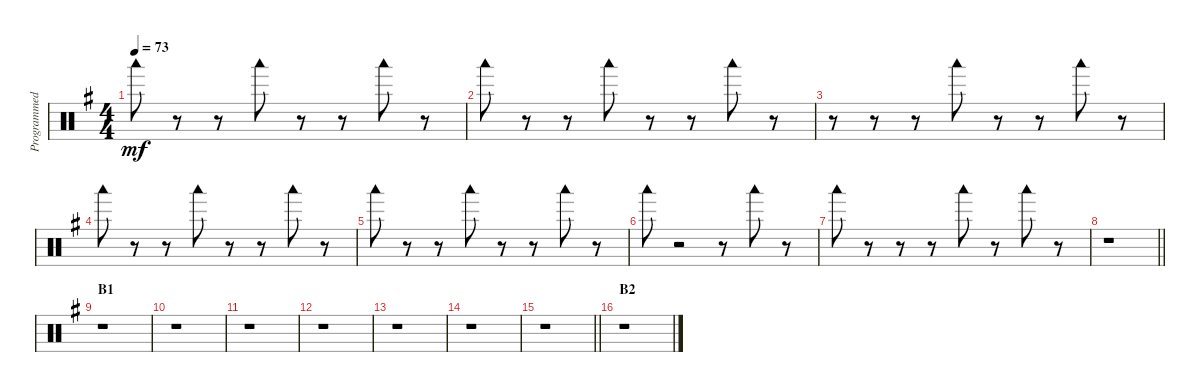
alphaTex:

\track ("Programmed Drums" "Programmed") {instrument percussion}
\staff {score}
\articulation defaults
\ts (4 4)
\tempo 73
\clef neutral
\ks g "Woodblock low (hit)".8{dy mf}
r.8 r.8 "Woodblock low (hit)".8 r.8 r.8 "Woodblock low (hit)".8 r.8 |
"Woodblock low (hit)".8 r.8 r.8 "Woodblock low (hit)".8 r.8 r.8 "Woodblock low (hit)".8 r.8 |
r.8 r.8 r.8 "Woodblock low (hit)".8 r.8 r.8 "Woodblock low (hit)".8 r.8 |
"Woodblock low (hit)".8 r.8 r.8 "Woodblock low (hit)".8 r.8 r.8 "Woodblock low (hit)".8 r.8 |
"Woodblock low (hit)".8 r.8 r.8 "Woodblock low (hit)".8 r.8 r.8 "Woodblock low (hit)".8 r.8 |
"Woodblock low (hit)".8 r.2 r.8 "Woodblock low (hit)".8 r.8 |
"Woodblock low (hit)".8 r.8 r.8 r.8 "Woodblock low (hit)".8 r.8 "Woodblock low (hit)".8 r.8 |
\barLineRight lightlight
r.1 |
\section ("" "B1")
r.1 |
r.1 |
r.1 |
r.1 |
r.1 |
r.1 |
\barLineRight lightlight
r.1 |
\section ("" "B2")
r.1
